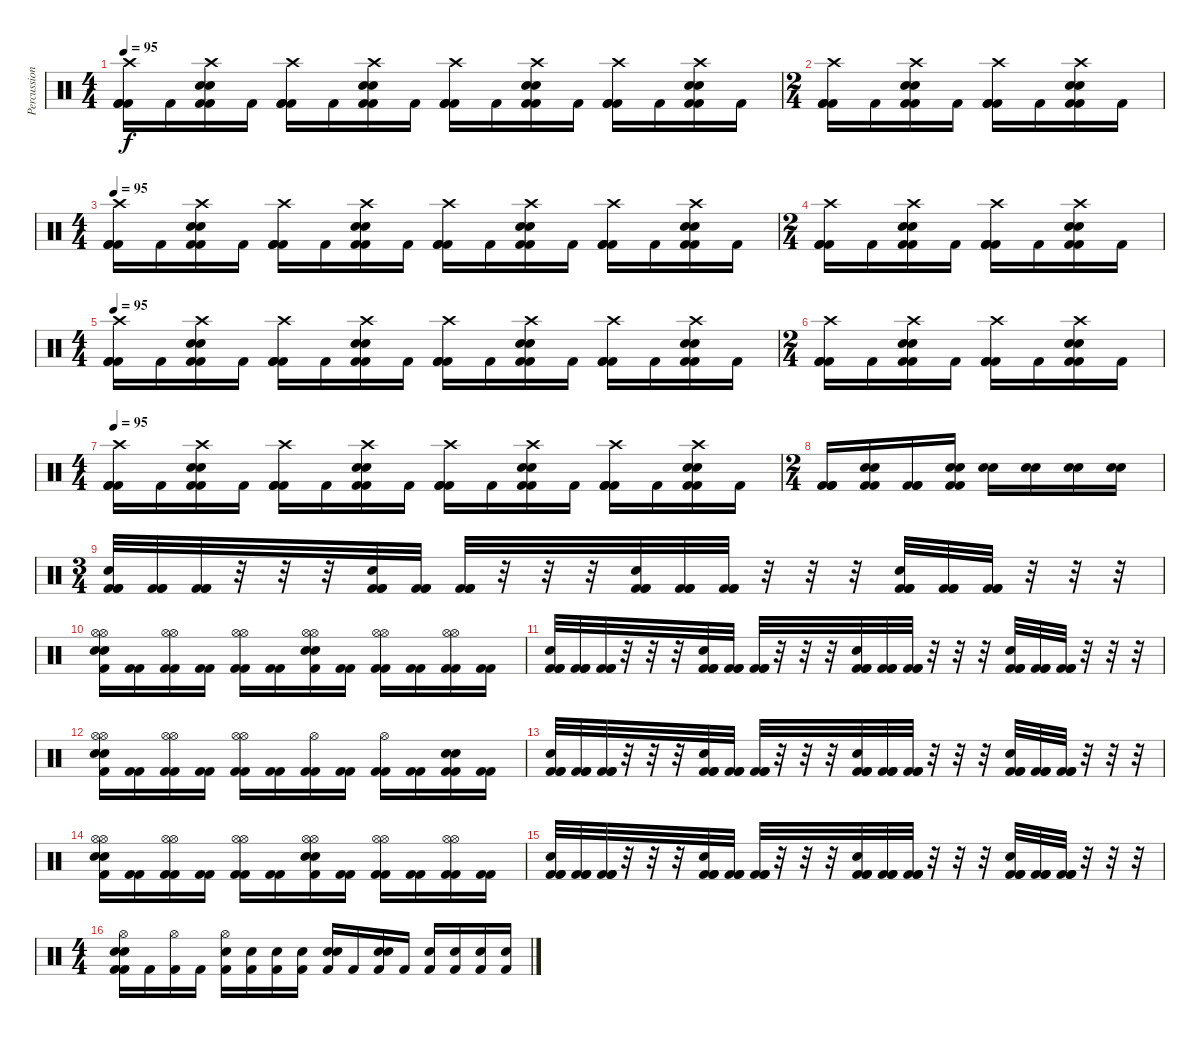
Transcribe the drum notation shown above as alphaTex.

\track ("Percussion" "Percussion") {instrument percussion}
\staff {score}
\articulation defaults
\ts (4 4)
\tempo 90
\tempo 95
\clef neutral
\ks c
("Crash high (hit)" "Kick (hit) 2" "Kick (hit) 2" "Kick (hit) 2").16{dy f} "Kick (hit) 2".16 ("Crash high (hit)" "Snare (hit) 2" "Snare (hit) 2" "Kick (hit) 2" "Kick (hit) 2").16 "Kick (hit) 2".16 ("Crash high (hit)" "Kick (hit) 2" "Kick (hit) 2" "Kick (hit) 2").16 "Kick (hit) 2".16 ("Crash high (hit)" "Snare (hit) 2" "Snare (hit) 2" "Kick (hit) 2" "Kick (hit) 2").16 "Kick (hit) 2".16 ("Crash high (hit)" "Kick (hit) 2" "Kick (hit) 2" "Kick (hit) 2").16 "Kick (hit) 2".16 ("Crash high (hit)" "Snare (hit) 2" "Snare (hit) 2" "Kick (hit) 2" "Kick (hit) 2").16 "Kick (hit) 2".16 ("Crash high (hit)" "Kick (hit) 2" "Kick (hit) 2" "Kick (hit) 2").16 "Kick (hit) 2".16 ("Crash high (hit)" "Snare (hit) 2" "Snare (hit) 2" "Kick (hit) 2" "Kick (hit) 2").16 "Kick (hit) 2".16 |
\ts (2 4)
("Crash high (hit)" "Kick (hit) 2" "Kick (hit) 2" "Kick (hit) 2").16 "Kick (hit) 2".16 ("Crash high (hit)" "Snare (hit) 2" "Snare (hit) 2" "Kick (hit) 2" "Kick (hit) 2").16 "Kick (hit) 2".16 ("Crash high (hit)" "Kick (hit) 2" "Kick (hit) 2" "Kick (hit) 2").16 "Kick (hit) 2".16 ("Crash high (hit)" "Snare (hit) 2" "Snare (hit) 2" "Kick (hit) 2" "Kick (hit) 2").16 "Kick (hit) 2".16 |
\ts (4 4)
\tempo 95
("Crash high (hit)" "Kick (hit) 2" "Kick (hit) 2" "Kick (hit) 2").16 "Kick (hit) 2".16 ("Crash high (hit)" "Snare (hit) 2" "Snare (hit) 2" "Kick (hit) 2" "Kick (hit) 2").16 "Kick (hit) 2".16 ("Crash high (hit)" "Kick (hit) 2" "Kick (hit) 2" "Kick (hit) 2").16 "Kick (hit) 2".16 ("Crash high (hit)" "Snare (hit) 2" "Snare (hit) 2" "Kick (hit) 2" "Kick (hit) 2").16 "Kick (hit) 2".16 ("Crash high (hit)" "Kick (hit) 2" "Kick (hit) 2" "Kick (hit) 2").16 "Kick (hit) 2".16 ("Crash high (hit)" "Snare (hit) 2" "Snare (hit) 2" "Kick (hit) 2" "Kick (hit) 2").16 "Kick (hit) 2".16 ("Crash high (hit)" "Kick (hit) 2" "Kick (hit) 2" "Kick (hit) 2").16 "Kick (hit) 2".16 ("Crash high (hit)" "Snare (hit) 2" "Snare (hit) 2" "Kick (hit) 2" "Kick (hit) 2").16 "Kick (hit) 2".16 |
\ts (2 4)
("Crash high (hit)" "Kick (hit) 2" "Kick (hit) 2" "Kick (hit) 2").16 "Kick (hit) 2".16 ("Crash high (hit)" "Snare (hit) 2" "Snare (hit) 2" "Kick (hit) 2" "Kick (hit) 2").16 "Kick (hit) 2".16 ("Crash high (hit)" "Kick (hit) 2" "Kick (hit) 2" "Kick (hit) 2").16 "Kick (hit) 2".16 ("Crash high (hit)" "Snare (hit) 2" "Snare (hit) 2" "Kick (hit) 2" "Kick (hit) 2").16 "Kick (hit) 2".16 |
\ts (4 4)
\tempo 90
\tempo 95
("Crash high (hit)" "Kick (hit) 2" "Kick (hit) 2" "Kick (hit) 2").16 "Kick (hit) 2".16 ("Crash high (hit)" "Snare (hit) 2" "Snare (hit) 2" "Kick (hit) 2" "Kick (hit) 2").16 "Kick (hit) 2".16 ("Crash high (hit)" "Kick (hit) 2" "Kick (hit) 2" "Kick (hit) 2").16 "Kick (hit) 2".16 ("Crash high (hit)" "Snare (hit) 2" "Snare (hit) 2" "Kick (hit) 2" "Kick (hit) 2").16 "Kick (hit) 2".16 ("Crash high (hit)" "Kick (hit) 2" "Kick (hit) 2" "Kick (hit) 2").16 "Kick (hit) 2".16 ("Crash high (hit)" "Snare (hit) 2" "Snare (hit) 2" "Kick (hit) 2" "Kick (hit) 2").16 "Kick (hit) 2".16 ("Crash high (hit)" "Kick (hit) 2" "Kick (hit) 2" "Kick (hit) 2").16 "Kick (hit) 2".16 ("Crash high (hit)" "Snare (hit) 2" "Snare (hit) 2" "Kick (hit) 2" "Kick (hit) 2").16 "Kick (hit) 2".16 |
\ts (2 4)
("Crash high (hit)" "Kick (hit) 2" "Kick (hit) 2" "Kick (hit) 2").16 "Kick (hit) 2".16 ("Crash high (hit)" "Snare (hit) 2" "Snare (hit) 2" "Kick (hit) 2" "Kick (hit) 2").16 "Kick (hit) 2".16 ("Crash high (hit)" "Kick (hit) 2" "Kick (hit) 2" "Kick (hit) 2").16 "Kick (hit) 2".16 ("Crash high (hit)" "Snare (hit) 2" "Snare (hit) 2" "Kick (hit) 2" "Kick (hit) 2").16 "Kick (hit) 2".16 |
\ts (4 4)
\tempo 95
("Crash high (hit)" "Kick (hit) 2" "Kick (hit) 2" "Kick (hit) 2").16 "Kick (hit) 2".16 ("Crash high (hit)" "Snare (hit) 2" "Snare (hit) 2" "Kick (hit) 2" "Kick (hit) 2").16 "Kick (hit) 2".16 ("Crash high (hit)" "Kick (hit) 2" "Kick (hit) 2" "Kick (hit) 2").16 "Kick (hit) 2".16 ("Crash high (hit)" "Snare (hit) 2" "Snare (hit) 2" "Kick (hit) 2" "Kick (hit) 2").16 "Kick (hit) 2".16 ("Crash high (hit)" "Kick (hit) 2" "Kick (hit) 2" "Kick (hit) 2").16 "Kick (hit) 2".16 ("Crash high (hit)" "Snare (hit) 2" "Snare (hit) 2" "Kick (hit) 2" "Kick (hit) 2").16 "Kick (hit) 2".16 ("Crash high (hit)" "Kick (hit) 2" "Kick (hit) 2" "Kick (hit) 2").16 "Kick (hit) 2".16 ("Crash high (hit)" "Snare (hit) 2" "Snare (hit) 2" "Kick (hit) 2" "Kick (hit) 2").16 "Kick (hit) 2".16 |
\ts (2 4)
("Kick (hit) 2" "Kick (hit) 2" "Kick (hit) 2").16 ("Snare (hit) 2" "Snare (hit) 2" "Kick (hit) 2" "Kick (hit) 2").16 ("Kick (hit) 2" "Kick (hit) 2" "Kick (hit) 2").16 ("Snare (hit) 2" "Snare (hit) 2" "Kick (hit) 2" "Kick (hit) 2").16 ("Snare (hit) 2" "Snare (hit) 2").16 ("Snare (hit) 2" "Snare (hit) 2").16 ("Snare (hit) 2" "Snare (hit) 2").16 ("Snare (hit) 2" "Snare (hit) 2").16 |
\ts (3 4)
("Snare (hit) 2" "Kick (hit) 2" "Kick (hit) 2" "Kick (hit) 2").32 ("Kick (hit) 2" "Kick (hit) 2" "Kick (hit) 2").32 ("Kick (hit) 2" "Kick (hit) 2" "Kick (hit) 2").32 r.32 r.32 r.32 ("Snare (hit) 2" "Kick (hit) 2" "Kick (hit) 2" "Kick (hit) 2").32 ("Kick (hit) 2" "Kick (hit) 2" "Kick (hit) 2").32 ("Kick (hit) 2" "Kick (hit) 2" "Kick (hit) 2").32 r.32 r.32 r.32 ("Snare (hit) 2" "Kick (hit) 2" "Kick (hit) 2" "Kick (hit) 2").32 ("Kick (hit) 2" "Kick (hit) 2" "Kick (hit) 2").32 ("Kick (hit) 2" "Kick (hit) 2" "Kick (hit) 2").32 r.32 r.32 r.32 ("Snare (hit) 2" "Kick (hit) 2" "Kick (hit) 2" "Kick (hit) 2").32 ("Kick (hit) 2" "Kick (hit) 2" "Kick (hit) 2").32 ("Kick (hit) 2" "Kick (hit) 2" "Kick (hit) 2").32 r.32 r.32 r.32 |
("Hi-Hat (open)" "Hi-Hat (open)" "Snare (hit) 2" "Snare (hit) 2" "Kick (hit) 2").16 ("Kick (hit) 2" "Kick (hit) 2").16 ("Hi-Hat (open)" "Hi-Hat (open)" "Kick (hit) 2" "Kick (hit) 2").16 ("Kick (hit) 2" "Kick (hit) 2").16 ("Hi-Hat (open)" "Hi-Hat (open)" "Kick (hit) 2" "Kick (hit) 2").16 ("Kick (hit) 2" "Kick (hit) 2").16 ("Hi-Hat (open)" "Hi-Hat (open)" "Snare (hit) 2" "Snare (hit) 2" "Kick (hit) 2").16 ("Kick (hit) 2" "Kick (hit) 2").16 ("Hi-Hat (open)" "Hi-Hat (open)" "Kick (hit) 2" "Kick (hit) 2").16 ("Kick (hit) 2" "Kick (hit) 2").16 ("Hi-Hat (open)" "Hi-Hat (open)" "Kick (hit) 2" "Kick (hit) 2").16 ("Kick (hit) 2" "Kick (hit) 2").16 |
("Snare (hit) 2" "Kick (hit) 2" "Kick (hit) 2" "Kick (hit) 2").32 ("Kick (hit) 2" "Kick (hit) 2" "Kick (hit) 2").32 ("Kick (hit) 2" "Kick (hit) 2" "Kick (hit) 2").32 r.32 r.32 r.32 ("Snare (hit) 2" "Kick (hit) 2" "Kick (hit) 2" "Kick (hit) 2").32 ("Kick (hit) 2" "Kick (hit) 2" "Kick (hit) 2").32 ("Kick (hit) 2" "Kick (hit) 2" "Kick (hit) 2").32 r.32 r.32 r.32 ("Snare (hit) 2" "Kick (hit) 2" "Kick (hit) 2" "Kick (hit) 2").32 ("Kick (hit) 2" "Kick (hit) 2" "Kick (hit) 2").32 ("Kick (hit) 2" "Kick (hit) 2" "Kick (hit) 2").32 r.32 r.32 r.32 ("Snare (hit) 2" "Kick (hit) 2" "Kick (hit) 2" "Kick (hit) 2").32 ("Kick (hit) 2" "Kick (hit) 2" "Kick (hit) 2").32 ("Kick (hit) 2" "Kick (hit) 2" "Kick (hit) 2").32 r.32 r.32 r.32 |
("Hi-Hat (open)" "Hi-Hat (open)" "Snare (hit) 2" "Snare (hit) 2" "Kick (hit) 2").16 ("Kick (hit) 2" "Kick (hit) 2").16 ("Hi-Hat (open)" "Hi-Hat (open)" "Kick (hit) 2" "Kick (hit) 2").16 ("Kick (hit) 2" "Kick (hit) 2").16 ("Hi-Hat (open)" "Hi-Hat (open)" "Kick (hit) 2" "Kick (hit) 2").16 ("Kick (hit) 2" "Kick (hit) 2").16 ("Hi-Hat (open)" "Kick (hit) 2" "Kick (hit) 2").16 ("Kick (hit) 2" "Kick (hit) 2").16 ("Hi-Hat (open)" "Kick (hit) 2" "Kick (hit) 2").16 ("Kick (hit) 2" "Kick (hit) 2").16 ("Snare (hit) 2" "Snare (hit) 2" "Kick (hit) 2" "Kick (hit) 2").16 ("Kick (hit) 2" "Kick (hit) 2").16 |
("Snare (hit) 2" "Kick (hit) 2" "Kick (hit) 2" "Kick (hit) 2").32 ("Kick (hit) 2" "Kick (hit) 2" "Kick (hit) 2").32 ("Kick (hit) 2" "Kick (hit) 2" "Kick (hit) 2").32 r.32 r.32 r.32 ("Snare (hit) 2" "Kick (hit) 2" "Kick (hit) 2" "Kick (hit) 2").32 ("Kick (hit) 2" "Kick (hit) 2" "Kick (hit) 2").32 ("Kick (hit) 2" "Kick (hit) 2" "Kick (hit) 2").32 r.32 r.32 r.32 ("Snare (hit) 2" "Kick (hit) 2" "Kick (hit) 2" "Kick (hit) 2").32 ("Kick (hit) 2" "Kick (hit) 2" "Kick (hit) 2").32 ("Kick (hit) 2" "Kick (hit) 2" "Kick (hit) 2").32 r.32 r.32 r.32 ("Snare (hit) 2" "Kick (hit) 2" "Kick (hit) 2" "Kick (hit) 2").32 ("Kick (hit) 2" "Kick (hit) 2" "Kick (hit) 2").32 ("Kick (hit) 2" "Kick (hit) 2" "Kick (hit) 2").32 r.32 r.32 r.32 |
("Hi-Hat (open)" "Hi-Hat (open)" "Snare (hit) 2" "Snare (hit) 2" "Kick (hit) 2").16 ("Kick (hit) 2" "Kick (hit) 2").16 ("Hi-Hat (open)" "Hi-Hat (open)" "Kick (hit) 2" "Kick (hit) 2").16 ("Kick (hit) 2" "Kick (hit) 2").16 ("Hi-Hat (open)" "Hi-Hat (open)" "Kick (hit) 2" "Kick (hit) 2").16 ("Kick (hit) 2" "Kick (hit) 2").16 ("Hi-Hat (open)" "Hi-Hat (open)" "Snare (hit) 2" "Snare (hit) 2" "Kick (hit) 2").16 ("Kick (hit) 2" "Kick (hit) 2").16 ("Hi-Hat (open)" "Hi-Hat (open)" "Kick (hit) 2" "Kick (hit) 2").16 ("Kick (hit) 2" "Kick (hit) 2").16 ("Hi-Hat (open)" "Hi-Hat (open)" "Kick (hit) 2" "Kick (hit) 2").16 ("Kick (hit) 2" "Kick (hit) 2").16 |
("Snare (hit) 2" "Kick (hit) 2" "Kick (hit) 2" "Kick (hit) 2").32 ("Kick (hit) 2" "Kick (hit) 2" "Kick (hit) 2").32 ("Kick (hit) 2" "Kick (hit) 2" "Kick (hit) 2").32 r.32 r.32 r.32 ("Snare (hit) 2" "Kick (hit) 2" "Kick (hit) 2" "Kick (hit) 2").32 ("Kick (hit) 2" "Kick (hit) 2" "Kick (hit) 2").32 ("Kick (hit) 2" "Kick (hit) 2" "Kick (hit) 2").32 r.32 r.32 r.32 ("Snare (hit) 2" "Kick (hit) 2" "Kick (hit) 2" "Kick (hit) 2").32 ("Kick (hit) 2" "Kick (hit) 2" "Kick (hit) 2").32 ("Kick (hit) 2" "Kick (hit) 2" "Kick (hit) 2").32 r.32 r.32 r.32 ("Snare (hit) 2" "Kick (hit) 2" "Kick (hit) 2" "Kick (hit) 2").32 ("Kick (hit) 2" "Kick (hit) 2" "Kick (hit) 2").32 ("Kick (hit) 2" "Kick (hit) 2" "Kick (hit) 2").32 r.32 r.32 r.32 |
\ts (4 4)
("Hi-Hat (open)" "Snare (hit) 2" "Snare (hit) 2" "Kick (hit) 2" "Kick (hit) 2").16 "Kick (hit) 2".16 ("Hi-Hat (open)" "Kick (hit) 2").16 "Kick (hit) 2".16 ("Hi-Hat (open)" "Snare (hit) 2" "Kick (hit) 2").16 ("Snare (hit) 2" "Kick (hit) 2").16 ("Snare (hit) 2" "Kick (hit) 2").16 ("Snare (hit) 2" "Kick (hit) 2").16 ("Snare (hit) 2" "Snare (hit) 2" "Kick (hit) 2").16 "Kick (hit) 2".16 ("Snare (hit) 2" "Snare (hit) 2" "Kick (hit) 2").16 "Kick (hit) 2".16 ("Snare (hit) 2" "Kick (hit) 2").16 ("Snare (hit) 2" "Kick (hit) 2").16 ("Snare (hit) 2" "Kick (hit) 2").16 ("Snare (hit) 2" "Kick (hit) 2").16
